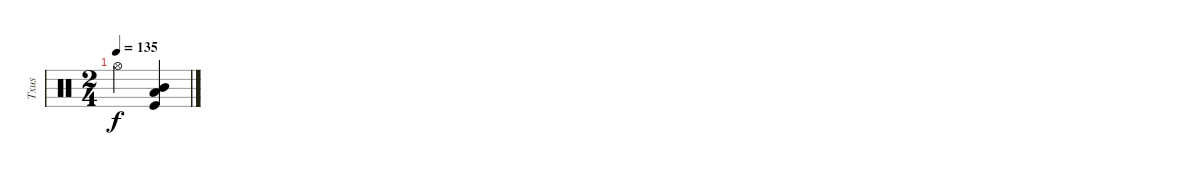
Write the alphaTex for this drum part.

\track ("Txus" "Txus") {instrument percussion}
\staff {score}
\articulation defaults
\ts (2 4)
\tempo 135
\clef neutral
\ks c "Hi-Hat (open)".4{dy f}
("Kick (hit)" "Mid Tom (hit)" "Low Tom (hit)").4
